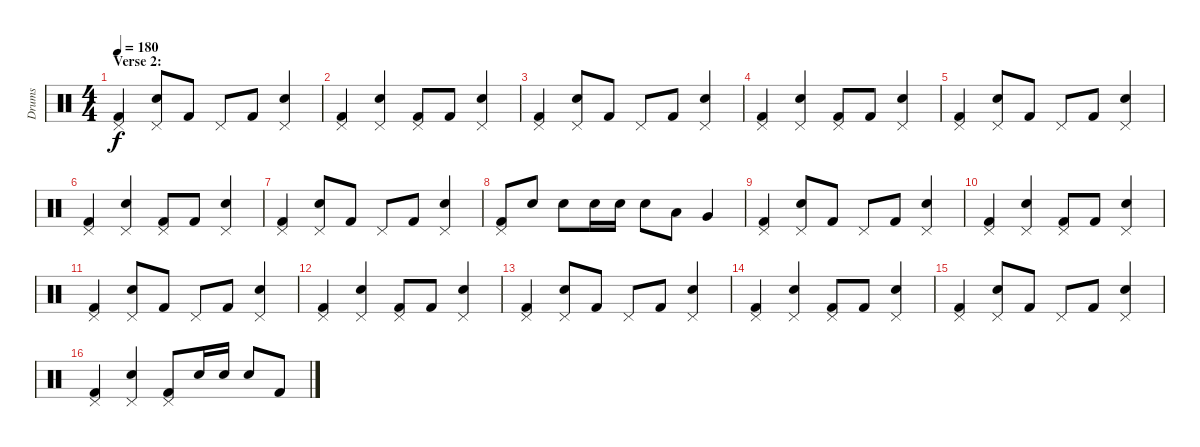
\track ("Drums" "Drums") {instrument percussion}
\staff {score}
\articulation defaults
\ts (4 4)
\section ("" "Verse 2:")
\tempo 180
\clef neutral
\ks c
("Pedal Hi-Hat (hit)" "Kick (hit) 2").4{dy f} ("Pedal Hi-Hat (hit)" "Electric Snare (hit)").8 "Kick (hit) 2".8 "Pedal Hi-Hat (hit)".8 "Kick (hit) 2".8 ("Pedal Hi-Hat (hit)" "Electric Snare (hit)").4 |
("Pedal Hi-Hat (hit)" "Kick (hit) 2").4 ("Pedal Hi-Hat (hit)" "Electric Snare (hit)").4 ("Pedal Hi-Hat (hit)" "Kick (hit) 2").8 "Kick (hit) 2".8 ("Pedal Hi-Hat (hit)" "Electric Snare (hit)").4 |
("Pedal Hi-Hat (hit)" "Kick (hit) 2").4 ("Pedal Hi-Hat (hit)" "Electric Snare (hit)").8 "Kick (hit) 2".8 "Pedal Hi-Hat (hit)".8 "Kick (hit) 2".8 ("Pedal Hi-Hat (hit)" "Electric Snare (hit)").4 |
("Pedal Hi-Hat (hit)" "Kick (hit) 2").4 ("Pedal Hi-Hat (hit)" "Electric Snare (hit)").4 ("Pedal Hi-Hat (hit)" "Kick (hit) 2").8 "Kick (hit) 2".8 ("Pedal Hi-Hat (hit)" "Electric Snare (hit)").4 |
("Pedal Hi-Hat (hit)" "Kick (hit) 2").4 ("Pedal Hi-Hat (hit)" "Electric Snare (hit)").8 "Kick (hit) 2".8 "Pedal Hi-Hat (hit)".8 "Kick (hit) 2".8 ("Pedal Hi-Hat (hit)" "Electric Snare (hit)").4 |
("Pedal Hi-Hat (hit)" "Kick (hit) 2").4 ("Pedal Hi-Hat (hit)" "Electric Snare (hit)").4 ("Pedal Hi-Hat (hit)" "Kick (hit) 2").8 "Kick (hit) 2".8 ("Pedal Hi-Hat (hit)" "Electric Snare (hit)").4 |
("Pedal Hi-Hat (hit)" "Kick (hit) 2").4 ("Pedal Hi-Hat (hit)" "Electric Snare (hit)").8 "Kick (hit) 2".8 "Pedal Hi-Hat (hit)".8 "Kick (hit) 2".8 ("Pedal Hi-Hat (hit)" "Electric Snare (hit)").4 |
("Pedal Hi-Hat (hit)" "Kick (hit) 2").8 "Electric Snare (hit)".8 "Electric Snare (hit)".8 "Electric Snare (hit)".16 "Electric Snare (hit)".16 "Electric Snare (hit)".8 "Low Tom (hit)".8 "Very Low Tom (hit)".4 |
("Pedal Hi-Hat (hit)" "Kick (hit) 2").4 ("Pedal Hi-Hat (hit)" "Electric Snare (hit)").8 "Kick (hit) 2".8 "Pedal Hi-Hat (hit)".8 "Kick (hit) 2".8 ("Pedal Hi-Hat (hit)" "Electric Snare (hit)").4 |
("Pedal Hi-Hat (hit)" "Kick (hit) 2").4 ("Pedal Hi-Hat (hit)" "Electric Snare (hit)").4 ("Pedal Hi-Hat (hit)" "Kick (hit) 2").8 "Kick (hit) 2".8 ("Pedal Hi-Hat (hit)" "Electric Snare (hit)").4 |
("Pedal Hi-Hat (hit)" "Kick (hit) 2").4 ("Pedal Hi-Hat (hit)" "Electric Snare (hit)").8 "Kick (hit) 2".8 "Pedal Hi-Hat (hit)".8 "Kick (hit) 2".8 ("Pedal Hi-Hat (hit)" "Electric Snare (hit)").4 |
("Pedal Hi-Hat (hit)" "Kick (hit) 2").4 ("Pedal Hi-Hat (hit)" "Electric Snare (hit)").4 ("Pedal Hi-Hat (hit)" "Kick (hit) 2").8 "Kick (hit) 2".8 ("Pedal Hi-Hat (hit)" "Electric Snare (hit)").4 |
("Pedal Hi-Hat (hit)" "Kick (hit) 2").4 ("Pedal Hi-Hat (hit)" "Electric Snare (hit)").8 "Kick (hit) 2".8 "Pedal Hi-Hat (hit)".8 "Kick (hit) 2".8 ("Pedal Hi-Hat (hit)" "Electric Snare (hit)").4 |
("Pedal Hi-Hat (hit)" "Kick (hit) 2").4 ("Pedal Hi-Hat (hit)" "Electric Snare (hit)").4 ("Pedal Hi-Hat (hit)" "Kick (hit) 2").8 "Kick (hit) 2".8 ("Pedal Hi-Hat (hit)" "Electric Snare (hit)").4 |
("Pedal Hi-Hat (hit)" "Kick (hit) 2").4 ("Pedal Hi-Hat (hit)" "Electric Snare (hit)").8 "Kick (hit) 2".8 "Pedal Hi-Hat (hit)".8 "Kick (hit) 2".8 ("Pedal Hi-Hat (hit)" "Electric Snare (hit)").4 |
("Pedal Hi-Hat (hit)" "Kick (hit) 2").4 ("Pedal Hi-Hat (hit)" "Electric Snare (hit)").4 ("Pedal Hi-Hat (hit)" "Kick (hit) 2").8 "Electric Snare (hit)".16 "Electric Snare (hit)".16 "Electric Snare (hit)".8 "Kick (hit) 2".8
